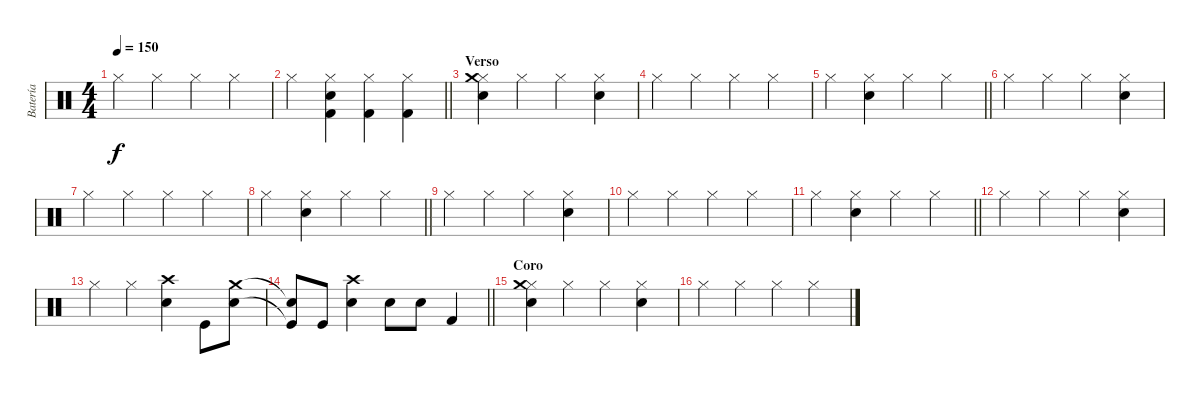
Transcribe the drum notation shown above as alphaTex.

\track ("Batería" "Batería") {instrument percussion}
\staff {score}
\articulation defaults
\ts (4 4)
\tempo 150
\clef neutral
\ks c "Hi-Hat (closed)".4{dy f} "Hi-Hat (closed)".4 "Hi-Hat (closed)".4 "Hi-Hat (closed)".4
|
\barLineRight lightlight "Hi-Hat (closed)".4
("Kick (hit) 2" "Hi-Hat (closed)" "Electric Snare (hit)").4 ("Hi-Hat (closed)" "Kick (hit) 2").4 ("Hi-Hat (closed)" "Kick (hit) 2").4 |
\section ("" "Verso")
("Hi-Hat (closed)" "Electric Snare (hit)" "Crash medium (hit)").4 "Hi-Hat (closed)".4 "Hi-Hat (closed)".4 ("Hi-Hat (closed)" "Electric Snare (hit)").4 |
"Hi-Hat (closed)".4 "Hi-Hat (closed)".4 "Hi-Hat (closed)".4 "Hi-Hat (closed)".4 |
\barLineRight lightlight "Hi-Hat (closed)".4
("Hi-Hat (closed)" "Electric Snare (hit)").4 "Hi-Hat (closed)".4 "Hi-Hat (closed)".4 |
"Hi-Hat (closed)".4 "Hi-Hat (closed)".4 "Hi-Hat (closed)".4 ("Hi-Hat (closed)" "Electric Snare (hit)").4 |
"Hi-Hat (closed)".4 "Hi-Hat (closed)".4 "Hi-Hat (closed)".4 "Hi-Hat (closed)".4 |
\barLineRight lightlight "Hi-Hat (closed)".4
("Hi-Hat (closed)" "Electric Snare (hit)").4 "Hi-Hat (closed)".4 "Hi-Hat (closed)".4 |
"Hi-Hat (closed)".4 "Hi-Hat (closed)".4 "Hi-Hat (closed)".4 ("Hi-Hat (closed)" "Electric Snare (hit)").4 |
"Hi-Hat (closed)".4 "Hi-Hat (closed)".4 "Hi-Hat (closed)".4 "Hi-Hat (closed)".4 |
\barLineRight lightlight "Hi-Hat (closed)".4
("Hi-Hat (closed)" "Electric Snare (hit)").4 "Hi-Hat (closed)".4 "Hi-Hat (closed)".4 |
"Hi-Hat (closed)".4 "Hi-Hat (closed)".4 "Hi-Hat (closed)".4 ("Hi-Hat (closed)" "Electric Snare (hit)").4 |
"Hi-Hat (closed)".4 "Hi-Hat (closed)".4 ("Crash high (hit)" "Snare (hit) 2").4 "Kick (hit)".8 ("Crash medium (hit)" "Electric Snare (hit)").8 |
\barLineRight lightlight
("Snare (hit)"{t} "Kick (hit)"{t}).8 "Kick (hit)".8 ("Crash high (hit)" "Snare (hit) 2").4 "Electric Snare (hit)".8 "Electric Snare (hit)".8 "Kick (hit) 2".4 |
\section ("" "Coro")
("Hi-Hat (closed)" "Electric Snare (hit)" "Crash medium (hit)").4 "Hi-Hat (closed)".4 "Hi-Hat (closed)".4 ("Hi-Hat (closed)" "Electric Snare (hit)").4 |
"Hi-Hat (closed)".4 "Hi-Hat (closed)".4 "Hi-Hat (closed)".4 "Hi-Hat (closed)".4
